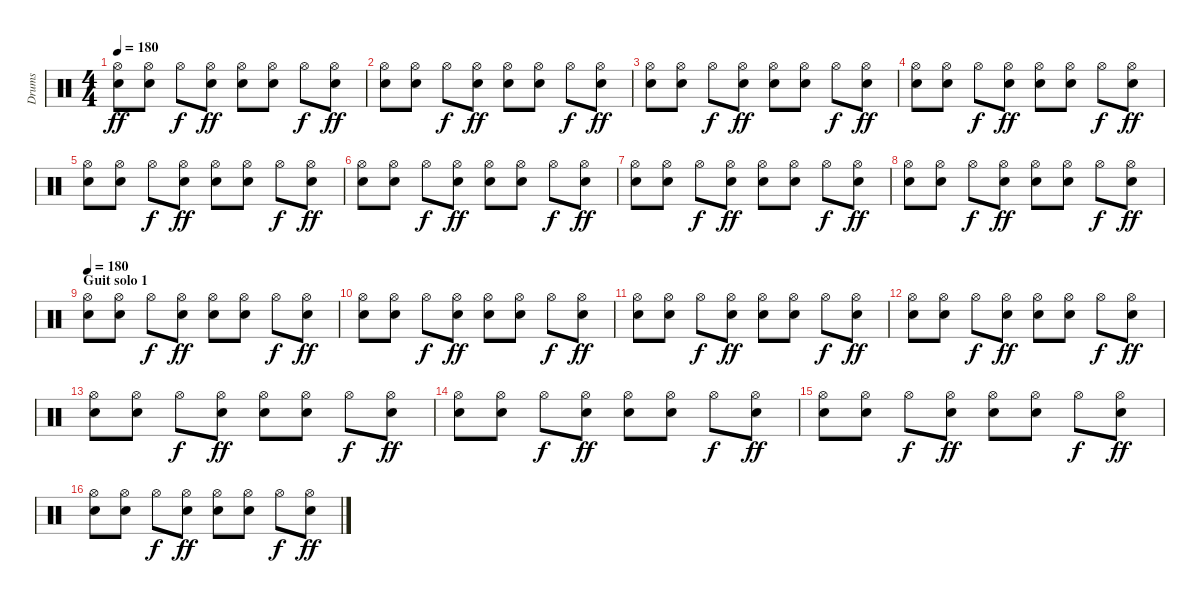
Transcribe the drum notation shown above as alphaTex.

\track ("Drums" "Drums") {instrument percussion}
\staff {score}
\articulation defaults
\ts (4 4)
\tempo 180
\clef neutral
\ks c
("Hi-Hat (open)" "Electric Snare (hit)").8{dy ff} ("Hi-Hat (open)" "Electric Snare (hit)").8 "Hi-Hat (open)".8{dy f} ("Hi-Hat (open)" "Electric Snare (hit)").8{dy ff} ("Hi-Hat (open)" "Electric Snare (hit)").8 ("Hi-Hat (open)" "Electric Snare (hit)").8 "Hi-Hat (open)".8{dy f} ("Hi-Hat (open)" "Electric Snare (hit)").8{dy ff} |
("Hi-Hat (open)" "Electric Snare (hit)").8 ("Hi-Hat (open)" "Electric Snare (hit)").8 "Hi-Hat (open)".8{dy f} ("Hi-Hat (open)" "Electric Snare (hit)").8{dy ff} ("Hi-Hat (open)" "Electric Snare (hit)").8 ("Hi-Hat (open)" "Electric Snare (hit)").8 "Hi-Hat (open)".8{dy f} ("Hi-Hat (open)" "Electric Snare (hit)").8{dy ff} |
("Hi-Hat (open)" "Electric Snare (hit)").8 ("Hi-Hat (open)" "Electric Snare (hit)").8 "Hi-Hat (open)".8{dy f} ("Hi-Hat (open)" "Electric Snare (hit)").8{dy ff} ("Hi-Hat (open)" "Electric Snare (hit)").8 ("Hi-Hat (open)" "Electric Snare (hit)").8 "Hi-Hat (open)".8{dy f} ("Hi-Hat (open)" "Electric Snare (hit)").8{dy ff} |
("Hi-Hat (open)" "Electric Snare (hit)").8 ("Hi-Hat (open)" "Electric Snare (hit)").8 "Hi-Hat (open)".8{dy f} ("Hi-Hat (open)" "Electric Snare (hit)").8{dy ff} ("Hi-Hat (open)" "Electric Snare (hit)").8 ("Hi-Hat (open)" "Electric Snare (hit)").8 "Hi-Hat (open)".8{dy f} ("Hi-Hat (open)" "Electric Snare (hit)").8{dy ff} |
("Hi-Hat (open)" "Electric Snare (hit)").8 ("Hi-Hat (open)" "Electric Snare (hit)").8 "Hi-Hat (open)".8{dy f} ("Hi-Hat (open)" "Electric Snare (hit)").8{dy ff} ("Hi-Hat (open)" "Electric Snare (hit)").8 ("Hi-Hat (open)" "Electric Snare (hit)").8 "Hi-Hat (open)".8{dy f} ("Hi-Hat (open)" "Electric Snare (hit)").8{dy ff} |
("Hi-Hat (open)" "Electric Snare (hit)").8 ("Hi-Hat (open)" "Electric Snare (hit)").8 "Hi-Hat (open)".8{dy f} ("Hi-Hat (open)" "Electric Snare (hit)").8{dy ff} ("Hi-Hat (open)" "Electric Snare (hit)").8 ("Hi-Hat (open)" "Electric Snare (hit)").8 "Hi-Hat (open)".8{dy f} ("Hi-Hat (open)" "Electric Snare (hit)").8{dy ff} |
("Hi-Hat (open)" "Electric Snare (hit)").8 ("Hi-Hat (open)" "Electric Snare (hit)").8 "Hi-Hat (open)".8{dy f} ("Hi-Hat (open)" "Electric Snare (hit)").8{dy ff} ("Hi-Hat (open)" "Electric Snare (hit)").8 ("Hi-Hat (open)" "Electric Snare (hit)").8 "Hi-Hat (open)".8{dy f} ("Hi-Hat (open)" "Electric Snare (hit)").8{dy ff} |
("Hi-Hat (open)" "Electric Snare (hit)").8 ("Hi-Hat (open)" "Electric Snare (hit)").8 "Hi-Hat (open)".8{dy f} ("Hi-Hat (open)" "Electric Snare (hit)").8{dy ff} ("Hi-Hat (open)" "Electric Snare (hit)").8 ("Hi-Hat (open)" "Electric Snare (hit)").8 "Hi-Hat (open)".8{dy f} ("Hi-Hat (open)" "Electric Snare (hit)").8{dy ff} |
\section ("" "Guit solo 1")
\tempo 180
("Hi-Hat (open)" "Electric Snare (hit)").8 ("Hi-Hat (open)" "Electric Snare (hit)").8 "Hi-Hat (open)".8{dy f} ("Hi-Hat (open)" "Electric Snare (hit)").8{dy ff} ("Hi-Hat (open)" "Electric Snare (hit)").8 ("Hi-Hat (open)" "Electric Snare (hit)").8 "Hi-Hat (open)".8{dy f} ("Hi-Hat (open)" "Electric Snare (hit)").8{dy ff} |
("Hi-Hat (open)" "Electric Snare (hit)").8 ("Hi-Hat (open)" "Electric Snare (hit)").8 "Hi-Hat (open)".8{dy f} ("Hi-Hat (open)" "Electric Snare (hit)").8{dy ff} ("Hi-Hat (open)" "Electric Snare (hit)").8 ("Hi-Hat (open)" "Electric Snare (hit)").8 "Hi-Hat (open)".8{dy f} ("Hi-Hat (open)" "Electric Snare (hit)").8{dy ff} |
("Hi-Hat (open)" "Electric Snare (hit)").8 ("Hi-Hat (open)" "Electric Snare (hit)").8 "Hi-Hat (open)".8{dy f} ("Hi-Hat (open)" "Electric Snare (hit)").8{dy ff} ("Hi-Hat (open)" "Electric Snare (hit)").8 ("Hi-Hat (open)" "Electric Snare (hit)").8 "Hi-Hat (open)".8{dy f} ("Hi-Hat (open)" "Electric Snare (hit)").8{dy ff} |
("Hi-Hat (open)" "Electric Snare (hit)").8 ("Hi-Hat (open)" "Electric Snare (hit)").8 "Hi-Hat (open)".8{dy f} ("Hi-Hat (open)" "Electric Snare (hit)").8{dy ff} ("Hi-Hat (open)" "Electric Snare (hit)").8 ("Hi-Hat (open)" "Electric Snare (hit)").8 "Hi-Hat (open)".8{dy f} ("Hi-Hat (open)" "Electric Snare (hit)").8{dy ff} |
("Hi-Hat (open)" "Electric Snare (hit)").8 ("Hi-Hat (open)" "Electric Snare (hit)").8 "Hi-Hat (open)".8{dy f} ("Hi-Hat (open)" "Electric Snare (hit)").8{dy ff} ("Hi-Hat (open)" "Electric Snare (hit)").8 ("Hi-Hat (open)" "Electric Snare (hit)").8 "Hi-Hat (open)".8{dy f} ("Hi-Hat (open)" "Electric Snare (hit)").8{dy ff} |
("Hi-Hat (open)" "Electric Snare (hit)").8 ("Hi-Hat (open)" "Electric Snare (hit)").8 "Hi-Hat (open)".8{dy f} ("Hi-Hat (open)" "Electric Snare (hit)").8{dy ff} ("Hi-Hat (open)" "Electric Snare (hit)").8 ("Hi-Hat (open)" "Electric Snare (hit)").8 "Hi-Hat (open)".8{dy f} ("Hi-Hat (open)" "Electric Snare (hit)").8{dy ff} |
("Hi-Hat (open)" "Electric Snare (hit)").8 ("Hi-Hat (open)" "Electric Snare (hit)").8 "Hi-Hat (open)".8{dy f} ("Hi-Hat (open)" "Electric Snare (hit)").8{dy ff} ("Hi-Hat (open)" "Electric Snare (hit)").8 ("Hi-Hat (open)" "Electric Snare (hit)").8 "Hi-Hat (open)".8{dy f} ("Hi-Hat (open)" "Electric Snare (hit)").8{dy ff} |
("Hi-Hat (open)" "Electric Snare (hit)").8 ("Hi-Hat (open)" "Electric Snare (hit)").8 "Hi-Hat (open)".8{dy f} ("Hi-Hat (open)" "Electric Snare (hit)").8{dy ff} ("Hi-Hat (open)" "Electric Snare (hit)").8 ("Hi-Hat (open)" "Electric Snare (hit)").8 "Hi-Hat (open)".8{dy f} ("Hi-Hat (open)" "Electric Snare (hit)").8{dy ff}
